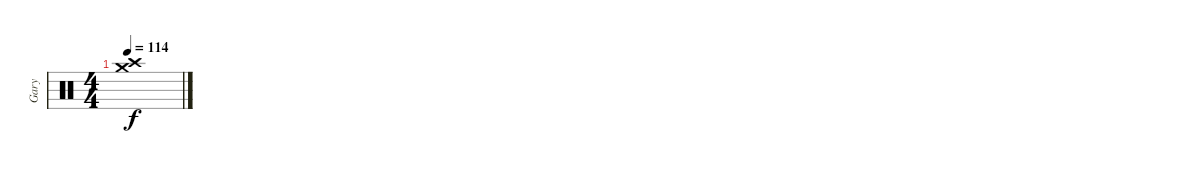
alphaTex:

\track ("Gary" "Gary") {instrument percussion}
\staff {score}
\articulation defaults
\ts (4 4)
\tempo 114
\clef neutral
\ks c
("Crash medium (hit)" "Crash high (hit)").1{dy f}
